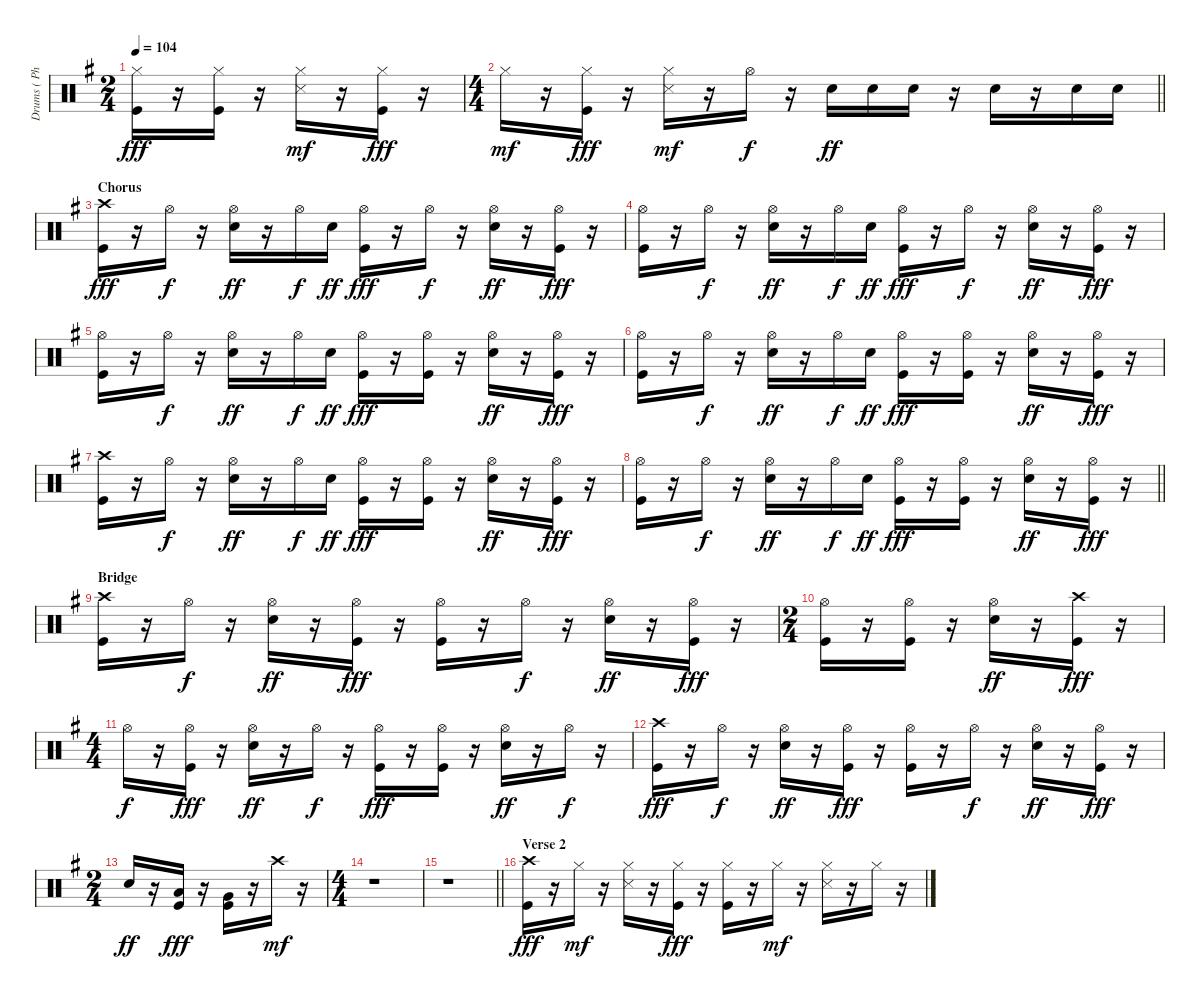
\track ("Drums ( Phillip Selway)" "Drums ( Ph") {instrument percussion}
\staff {score}
\articulation defaults
\ts (2 4)
\tempo 104
\clef neutral
\ks eminor
("Hi-Hat (closed)" "Kick (hit)").16{dy fff} r.16 ("Hi-Hat (closed)" "Kick (hit)").16 r.16 ("Hi-Hat (closed)" "Snare (side stick) 3").16{dy mf} r.16 ("Hi-Hat (closed)" "Kick (hit)").16{dy fff} r.16 |
\ts (4 4)
\barLineRight lightlight "Hi-Hat (closed)".16{dy mf}
r.16 ("Hi-Hat (closed)" "Kick (hit)").16{dy fff} r.16 ("Hi-Hat (closed)" "Snare (side stick) 3").16{dy mf} r.16 "Hi-Hat (open)".16{dy f} r.16 "Electric Snare (hit)".16{dy ff} "Electric Snare (hit)".16 "Electric Snare (hit)".16 r.16 "Electric Snare (hit)".16 r.16 "Electric Snare (hit)".16 "Electric Snare (hit)".16 |
\section ("" "Chorus")
("Crash high (hit)" "Kick (hit)").16{dy fff} r.16 "Hi-Hat (open)".16{dy f} r.16 ("Hi-Hat (open)" "Electric Snare (hit)").16{dy ff} r.16 "Hi-Hat (open)".16{dy f} "Electric Snare (hit)".16{dy ff} ("Hi-Hat (open)" "Kick (hit)").16{dy fff} r.16 "Hi-Hat (open)".16{dy f} r.16 ("Hi-Hat (open)" "Electric Snare (hit)").16{dy ff} r.16 ("Hi-Hat (open)" "Kick (hit)").16{dy fff} r.16 |
("Hi-Hat (open)" "Kick (hit)").16 r.16 "Hi-Hat (open)".16{dy f} r.16 ("Hi-Hat (open)" "Electric Snare (hit)").16{dy ff} r.16 "Hi-Hat (open)".16{dy f} "Electric Snare (hit)".16{dy ff} ("Hi-Hat (open)" "Kick (hit)").16{dy fff} r.16 "Hi-Hat (open)".16{dy f} r.16 ("Hi-Hat (open)" "Electric Snare (hit)").16{dy ff} r.16 ("Hi-Hat (open)" "Kick (hit)").16{dy fff} r.16 |
("Hi-Hat (open)" "Kick (hit)").16 r.16 "Hi-Hat (open)".16{dy f} r.16 ("Hi-Hat (open)" "Electric Snare (hit)").16{dy ff} r.16 "Hi-Hat (open)".16{dy f} "Electric Snare (hit)".16{dy ff} ("Hi-Hat (open)" "Kick (hit)").16{dy fff} r.16 ("Hi-Hat (open)" "Kick (hit)").16 r.16 ("Hi-Hat (open)" "Electric Snare (hit)").16{dy ff} r.16 ("Hi-Hat (open)" "Kick (hit)").16{dy fff} r.16 |
("Hi-Hat (open)" "Kick (hit)").16 r.16 "Hi-Hat (open)".16{dy f} r.16 ("Hi-Hat (open)" "Electric Snare (hit)").16{dy ff} r.16 "Hi-Hat (open)".16{dy f} "Electric Snare (hit)".16{dy ff} ("Hi-Hat (open)" "Kick (hit)").16{dy fff} r.16 ("Hi-Hat (open)" "Kick (hit)").16 r.16 ("Hi-Hat (open)" "Electric Snare (hit)").16{dy ff} r.16 ("Hi-Hat (open)" "Kick (hit)").16{dy fff} r.16 |
("Crash high (hit)" "Kick (hit)").16 r.16 "Hi-Hat (open)".16{dy f} r.16 ("Hi-Hat (open)" "Electric Snare (hit)").16{dy ff} r.16 "Hi-Hat (open)".16{dy f} "Electric Snare (hit)".16{dy ff} ("Hi-Hat (open)" "Kick (hit)").16{dy fff} r.16 ("Hi-Hat (open)" "Kick (hit)").16 r.16 ("Hi-Hat (open)" "Electric Snare (hit)").16{dy ff} r.16 ("Hi-Hat (open)" "Kick (hit)").16{dy fff} r.16 |
\barLineRight lightlight
("Hi-Hat (open)" "Kick (hit)").16 r.16 "Hi-Hat (open)".16{dy f} r.16 ("Hi-Hat (open)" "Electric Snare (hit)").16{dy ff} r.16 "Hi-Hat (open)".16{dy f} "Electric Snare (hit)".16{dy ff} ("Hi-Hat (open)" "Kick (hit)").16{dy fff} r.16 ("Hi-Hat (open)" "Kick (hit)").16 r.16 ("Hi-Hat (open)" "Electric Snare (hit)").16{dy ff} r.16 ("Hi-Hat (open)" "Kick (hit)").16{dy fff} r.16 |
\section ("" "Bridge")
("Crash high (hit)" "Kick (hit)").16 r.16 "Hi-Hat (open)".16{dy f} r.16 ("Hi-Hat (open)" "Electric Snare (hit)").16{dy ff} r.16 ("Hi-Hat (open)" "Kick (hit)").16{dy fff} r.16 ("Hi-Hat (open)" "Kick (hit)").16 r.16 "Hi-Hat (open)".16{dy f} r.16 ("Hi-Hat (open)" "Electric Snare (hit)").16{dy ff} r.16 ("Hi-Hat (open)" "Kick (hit)").16{dy fff} r.16 |
\ts (2 4)
("Hi-Hat (open)" "Kick (hit)").16 r.16 ("Hi-Hat (open)" "Kick (hit)").16 r.16 ("Hi-Hat (open)" "Electric Snare (hit)").16{dy ff} r.16 ("Crash high (hit)" "Kick (hit)").16{dy fff} r.16 |
\ts (4 4)
"Hi-Hat (open)".16{dy f} r.16 ("Hi-Hat (open)" "Kick (hit)").16{dy fff} r.16 ("Hi-Hat (open)" "Electric Snare (hit)").16{dy ff} r.16 "Hi-Hat (open)".16{dy f} r.16 ("Hi-Hat (open)" "Kick (hit)").16{dy fff} r.16 ("Hi-Hat (open)" "Kick (hit)").16 r.16 ("Hi-Hat (open)" "Electric Snare (hit)").16{dy ff} r.16 "Hi-Hat (open)".16{dy f} r.16 |
("Crash high (hit)" "Kick (hit)").16{dy fff} r.16 "Hi-Hat (open)".16{dy f} r.16 ("Hi-Hat (open)" "Electric Snare (hit)").16{dy ff} r.16 ("Hi-Hat (open)" "Kick (hit)").16{dy fff} r.16 ("Hi-Hat (open)" "Kick (hit)").16 r.16 "Hi-Hat (open)".16{dy f} r.16 ("Hi-Hat (open)" "Electric Snare (hit)").16{dy ff} r.16 ("Hi-Hat (open)" "Kick (hit)").16{dy fff} r.16 |
\ts (2 4)
"Electric Snare (hit)".16{dy ff} r.16 ("Low Tom (hit)" "Kick (hit)").16{dy fff} r.16 ("Very Low Tom (hit)" "Kick (hit)").16 r.16 "Crash high (hit)".16{dy mf} r.16 |
\ts (4 4)
r.1 |
\barLineRight lightlight
r.1 |
\section ("" "Verse 2")
("Crash high (hit)" "Kick (hit)").16{dy fff} r.16 "Hi-Hat (closed)".16{dy mf} r.16 ("Hi-Hat (closed)" "Snare (side stick) 3").16 r.16 ("Hi-Hat (closed)" "Kick (hit)").16{dy fff} r.16 ("Hi-Hat (closed)" "Kick (hit)").16 r.16 "Hi-Hat (closed)".16{dy mf} r.16 ("Hi-Hat (closed)" "Snare (side stick) 3").16 r.16 "Hi-Hat (closed)".16 r.16
